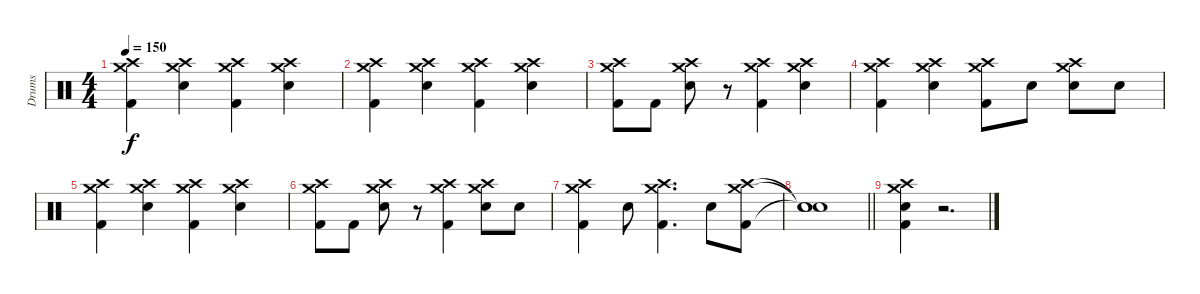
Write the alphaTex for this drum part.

\track ("Drums" "Drums") {instrument percussion}
\staff {score}
\articulation defaults
\ts (4 4)
\tempo 150
\clef neutral
\ks c
("Crash medium (hit)" "Crash high (hit)" "Kick (hit) 2").4{dy f} ("Crash medium (hit)" "Crash high (hit)" "Electric Snare (hit)").4 ("Crash medium (hit)" "Crash high (hit)" "Kick (hit) 2").4 ("Crash medium (hit)" "Crash high (hit)" "Electric Snare (hit)").4 |
("Crash medium (hit)" "Crash high (hit)" "Kick (hit) 2").4 ("Crash medium (hit)" "Crash high (hit)" "Electric Snare (hit)").4 ("Crash medium (hit)" "Crash high (hit)" "Kick (hit) 2").4 ("Crash medium (hit)" "Crash high (hit)" "Electric Snare (hit)").4 |
("Crash medium (hit)" "Crash high (hit)" "Kick (hit) 2").8 "Kick (hit) 2".8 ("Crash medium (hit)" "Crash high (hit)" "Electric Snare (hit)").8 r.8 ("Crash medium (hit)" "Crash high (hit)" "Kick (hit) 2").4 ("Crash medium (hit)" "Crash high (hit)" "Electric Snare (hit)").4 |
("Crash medium (hit)" "Crash high (hit)" "Kick (hit) 2").4 ("Crash medium (hit)" "Crash high (hit)" "Electric Snare (hit)").4 ("Crash medium (hit)" "Crash high (hit)" "Kick (hit) 2").8 "Electric Snare (hit)".8 ("Crash medium (hit)" "Crash high (hit)" "Electric Snare (hit)").8 "Electric Snare (hit)".8 |
("Crash medium (hit)" "Crash high (hit)" "Kick (hit) 2").4 ("Crash medium (hit)" "Crash high (hit)" "Electric Snare (hit)").4 ("Crash medium (hit)" "Crash high (hit)" "Kick (hit) 2").4 ("Crash medium (hit)" "Crash high (hit)" "Electric Snare (hit)").4 |
("Crash medium (hit)" "Crash high (hit)" "Kick (hit) 2").8 "Kick (hit) 2".8 ("Crash medium (hit)" "Crash high (hit)" "Electric Snare (hit)").8 r.8 ("Crash medium (hit)" "Crash high (hit)" "Kick (hit) 2").4 ("Crash medium (hit)" "Crash high (hit)" "Electric Snare (hit)").8 "Electric Snare (hit)".8 |
("Crash medium (hit)" "Crash high (hit)" "Kick (hit) 2").4 "Electric Snare (hit)".8 ("Crash medium (hit)" "Crash high (hit)" "Kick (hit) 2").4{d} "Electric Snare (hit)".8 ("Crash medium (hit)" "Crash high (hit)" "Kick (hit) 2").8 |
\barLineRight lightlight
("Snare (hit)"{t} "Snare (hit)"{t} "Snare (hit)"{t}).1 |
("Crash medium (hit)" "Crash high (hit)" "Electric Snare (hit)" "Kick (hit) 2").4 r.2{d}
